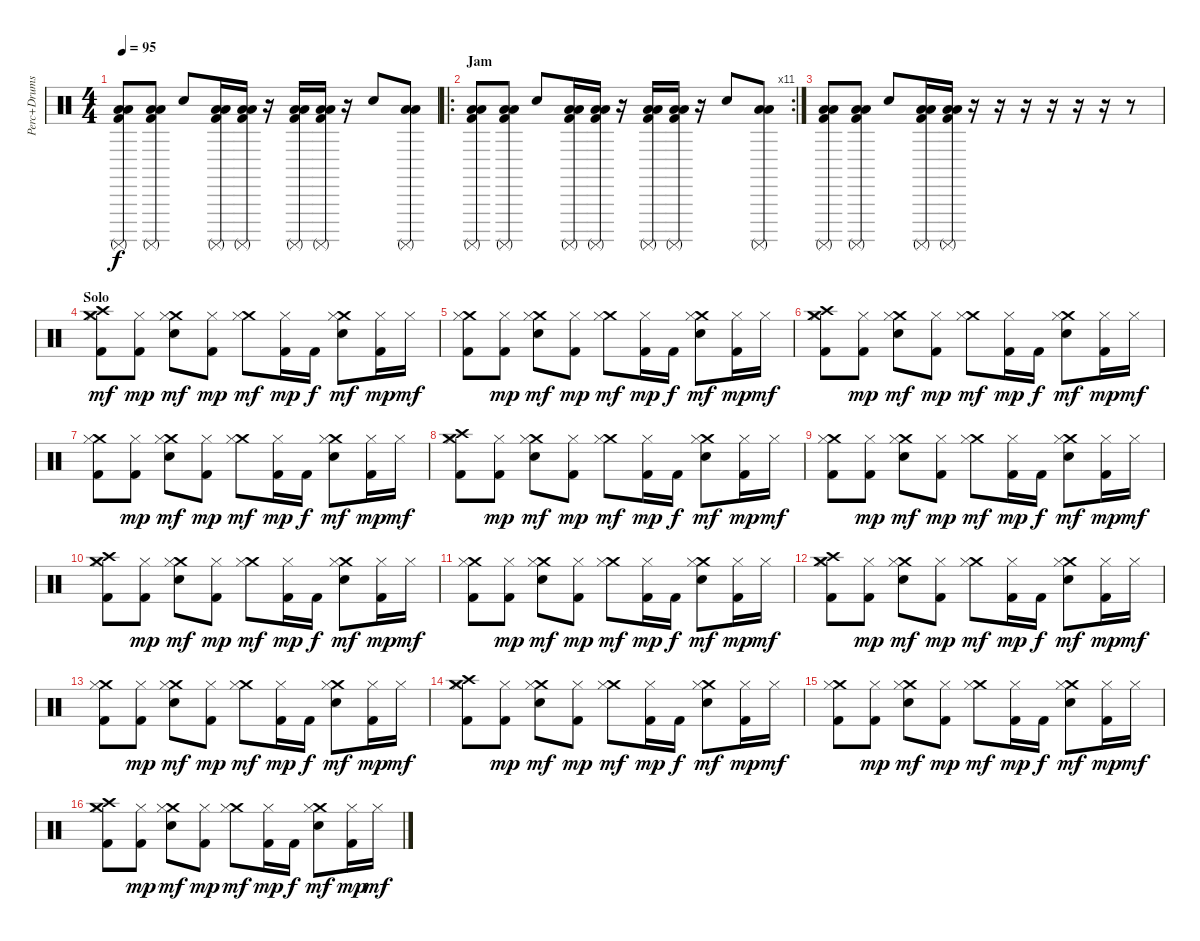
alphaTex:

\track ("Perc+Drums" "Perc+Drums") {instrument percussion}
\staff {score}
\articulation defaults
\ts (4 4)
\tempo 95
\clef neutral
\ks c
("Low Floor Tom (hit)" "Low Tom (hit)" "Surdo (mute)" "Kick (hit) 2").8{dy f} ("Low Floor Tom (hit)" "Low Tom (hit)" "Surdo (mute)" "Kick (hit) 2").8 "Snare (hit) 2".8 ("Low Floor Tom (hit)" "Low Tom (hit)" "Surdo (mute)" "Kick (hit) 2").16 ("Low Floor Tom (hit)" "Low Tom (hit)" "Surdo (mute)" "Kick (hit) 2").16 r.16 ("Low Floor Tom (hit)" "Low Tom (hit)" "Surdo (mute)" "Kick (hit) 2").16 ("Low Floor Tom (hit)" "Low Tom (hit)" "Surdo (mute)" "Kick (hit) 2").16 r.16 "Snare (hit) 2".8 ("Low Floor Tom (hit)" "Low Tom (hit)" "Surdo (mute)").8 |
\ro
\rc 11
\section ("" "Jam")
("Low Floor Tom (hit)" "Low Tom (hit)" "Surdo (mute)" "Kick (hit) 2").8 ("Low Floor Tom (hit)" "Low Tom (hit)" "Surdo (mute)" "Kick (hit) 2").8 "Snare (hit) 2".8 ("Low Floor Tom (hit)" "Low Tom (hit)" "Surdo (mute)" "Kick (hit) 2").16 ("Low Floor Tom (hit)" "Low Tom (hit)" "Surdo (mute)" "Kick (hit) 2").16 r.16 ("Low Floor Tom (hit)" "Low Tom (hit)" "Surdo (mute)" "Kick (hit) 2").16 ("Low Floor Tom (hit)" "Low Tom (hit)" "Surdo (mute)" "Kick (hit) 2").16 r.16 "Snare (hit) 2".8 ("Low Floor Tom (hit)" "Low Tom (hit)" "Surdo (mute)").8 |
("Low Floor Tom (hit)" "Low Tom (hit)" "Surdo (mute)" "Kick (hit) 2").8 ("Low Floor Tom (hit)" "Low Tom (hit)" "Surdo (mute)" "Kick (hit) 2").8 "Snare (hit) 2".8 ("Low Floor Tom (hit)" "Low Tom (hit)" "Surdo (mute)" "Kick (hit) 2").16 ("Low Floor Tom (hit)" "Low Tom (hit)" "Surdo (mute)" "Kick (hit) 2").16 r.16 r.16 r.16 r.16 r.16 r.16 r.8 |
\section ("" "Solo")
("Crash medium (hit)" "Crash high (hit)" "Hi-Hat (closed)" "Kick (hit) 2").8{dy mf} ("Hi-Hat (closed)" "Kick (hit) 2").8{dy mp} ("Crash medium (hit)" "Snare (hit) 2" "Hi-Hat (closed)").8{dy mf} ("Hi-Hat (closed)" "Kick (hit) 2").8{dy mp} ("Crash medium (hit)" "Hi-Hat (closed)").8{dy mf} ("Hi-Hat (closed)" "Kick (hit) 2").16{dy mp} "Kick (hit) 2".16{dy f} ("Crash medium (hit)" "Snare (hit) 2" "Hi-Hat (closed)").8{dy mf} ("Hi-Hat (closed)" "Kick (hit) 2").16{dy mp} "Hi-Hat (closed)".16{dy mf} |
("Crash medium (hit)" "Hi-Hat (closed)" "Kick (hit) 2").8 ("Hi-Hat (closed)" "Kick (hit) 2").8{dy mp} ("Crash medium (hit)" "Snare (hit) 2" "Hi-Hat (closed)").8{dy mf} ("Hi-Hat (closed)" "Kick (hit) 2").8{dy mp} ("Crash medium (hit)" "Hi-Hat (closed)").8{dy mf} ("Hi-Hat (closed)" "Kick (hit) 2").16{dy mp} "Kick (hit) 2".16{dy f} ("Crash medium (hit)" "Snare (hit) 2" "Hi-Hat (closed)").8{dy mf} ("Hi-Hat (closed)" "Kick (hit) 2").16{dy mp} "Hi-Hat (closed)".16{dy mf} |
("Crash medium (hit)" "Crash high (hit)" "Hi-Hat (closed)" "Kick (hit) 2").8 ("Hi-Hat (closed)" "Kick (hit) 2").8{dy mp} ("Crash medium (hit)" "Snare (hit) 2" "Hi-Hat (closed)").8{dy mf} ("Hi-Hat (closed)" "Kick (hit) 2").8{dy mp} ("Crash medium (hit)" "Hi-Hat (closed)").8{dy mf} ("Hi-Hat (closed)" "Kick (hit) 2").16{dy mp} "Kick (hit) 2".16{dy f} ("Crash medium (hit)" "Snare (hit) 2" "Hi-Hat (closed)").8{dy mf} ("Hi-Hat (closed)" "Kick (hit) 2").16{dy mp} "Hi-Hat (closed)".16{dy mf} |
("Crash medium (hit)" "Hi-Hat (closed)" "Kick (hit) 2").8 ("Hi-Hat (closed)" "Kick (hit) 2").8{dy mp} ("Crash medium (hit)" "Snare (hit) 2" "Hi-Hat (closed)").8{dy mf} ("Hi-Hat (closed)" "Kick (hit) 2").8{dy mp} ("Crash medium (hit)" "Hi-Hat (closed)").8{dy mf} ("Hi-Hat (closed)" "Kick (hit) 2").16{dy mp} "Kick (hit) 2".16{dy f} ("Crash medium (hit)" "Snare (hit) 2" "Hi-Hat (closed)").8{dy mf} ("Hi-Hat (closed)" "Kick (hit) 2").16{dy mp} "Hi-Hat (closed)".16{dy mf} |
("Crash medium (hit)" "Crash high (hit)" "Hi-Hat (closed)" "Kick (hit) 2").8 ("Hi-Hat (closed)" "Kick (hit) 2").8{dy mp} ("Crash medium (hit)" "Snare (hit) 2" "Hi-Hat (closed)").8{dy mf} ("Hi-Hat (closed)" "Kick (hit) 2").8{dy mp} ("Crash medium (hit)" "Hi-Hat (closed)").8{dy mf} ("Hi-Hat (closed)" "Kick (hit) 2").16{dy mp} "Kick (hit) 2".16{dy f} ("Crash medium (hit)" "Snare (hit) 2" "Hi-Hat (closed)").8{dy mf} ("Hi-Hat (closed)" "Kick (hit) 2").16{dy mp} "Hi-Hat (closed)".16{dy mf} |
("Crash medium (hit)" "Hi-Hat (closed)" "Kick (hit) 2").8 ("Hi-Hat (closed)" "Kick (hit) 2").8{dy mp} ("Crash medium (hit)" "Snare (hit) 2" "Hi-Hat (closed)").8{dy mf} ("Hi-Hat (closed)" "Kick (hit) 2").8{dy mp} ("Crash medium (hit)" "Hi-Hat (closed)").8{dy mf} ("Hi-Hat (closed)" "Kick (hit) 2").16{dy mp} "Kick (hit) 2".16{dy f} ("Crash medium (hit)" "Snare (hit) 2" "Hi-Hat (closed)").8{dy mf} ("Hi-Hat (closed)" "Kick (hit) 2").16{dy mp} "Hi-Hat (closed)".16{dy mf} |
("Crash medium (hit)" "Crash high (hit)" "Hi-Hat (closed)" "Kick (hit) 2").8 ("Hi-Hat (closed)" "Kick (hit) 2").8{dy mp} ("Crash medium (hit)" "Snare (hit) 2" "Hi-Hat (closed)").8{dy mf} ("Hi-Hat (closed)" "Kick (hit) 2").8{dy mp} ("Crash medium (hit)" "Hi-Hat (closed)").8{dy mf} ("Hi-Hat (closed)" "Kick (hit) 2").16{dy mp} "Kick (hit) 2".16{dy f} ("Crash medium (hit)" "Snare (hit) 2" "Hi-Hat (closed)").8{dy mf} ("Hi-Hat (closed)" "Kick (hit) 2").16{dy mp} "Hi-Hat (closed)".16{dy mf} |
("Crash medium (hit)" "Hi-Hat (closed)" "Kick (hit) 2").8 ("Hi-Hat (closed)" "Kick (hit) 2").8{dy mp} ("Crash medium (hit)" "Snare (hit) 2" "Hi-Hat (closed)").8{dy mf} ("Hi-Hat (closed)" "Kick (hit) 2").8{dy mp} ("Crash medium (hit)" "Hi-Hat (closed)").8{dy mf} ("Hi-Hat (closed)" "Kick (hit) 2").16{dy mp} "Kick (hit) 2".16{dy f} ("Crash medium (hit)" "Snare (hit) 2" "Hi-Hat (closed)").8{dy mf} ("Hi-Hat (closed)" "Kick (hit) 2").16{dy mp} "Hi-Hat (closed)".16{dy mf} |
("Crash medium (hit)" "Crash high (hit)" "Hi-Hat (closed)" "Kick (hit) 2").8 ("Hi-Hat (closed)" "Kick (hit) 2").8{dy mp} ("Crash medium (hit)" "Snare (hit) 2" "Hi-Hat (closed)").8{dy mf} ("Hi-Hat (closed)" "Kick (hit) 2").8{dy mp} ("Crash medium (hit)" "Hi-Hat (closed)").8{dy mf} ("Hi-Hat (closed)" "Kick (hit) 2").16{dy mp} "Kick (hit) 2".16{dy f} ("Crash medium (hit)" "Snare (hit) 2" "Hi-Hat (closed)").8{dy mf} ("Hi-Hat (closed)" "Kick (hit) 2").16{dy mp} "Hi-Hat (closed)".16{dy mf} |
("Crash medium (hit)" "Hi-Hat (closed)" "Kick (hit) 2").8 ("Hi-Hat (closed)" "Kick (hit) 2").8{dy mp} ("Crash medium (hit)" "Snare (hit) 2" "Hi-Hat (closed)").8{dy mf} ("Hi-Hat (closed)" "Kick (hit) 2").8{dy mp} ("Crash medium (hit)" "Hi-Hat (closed)").8{dy mf} ("Hi-Hat (closed)" "Kick (hit) 2").16{dy mp} "Kick (hit) 2".16{dy f} ("Crash medium (hit)" "Snare (hit) 2" "Hi-Hat (closed)").8{dy mf} ("Hi-Hat (closed)" "Kick (hit) 2").16{dy mp} "Hi-Hat (closed)".16{dy mf} |
("Crash medium (hit)" "Crash high (hit)" "Hi-Hat (closed)" "Kick (hit) 2").8 ("Hi-Hat (closed)" "Kick (hit) 2").8{dy mp} ("Crash medium (hit)" "Snare (hit) 2" "Hi-Hat (closed)").8{dy mf} ("Hi-Hat (closed)" "Kick (hit) 2").8{dy mp} ("Crash medium (hit)" "Hi-Hat (closed)").8{dy mf} ("Hi-Hat (closed)" "Kick (hit) 2").16{dy mp} "Kick (hit) 2".16{dy f} ("Crash medium (hit)" "Snare (hit) 2" "Hi-Hat (closed)").8{dy mf} ("Hi-Hat (closed)" "Kick (hit) 2").16{dy mp} "Hi-Hat (closed)".16{dy mf} |
("Crash medium (hit)" "Hi-Hat (closed)" "Kick (hit) 2").8 ("Hi-Hat (closed)" "Kick (hit) 2").8{dy mp} ("Crash medium (hit)" "Snare (hit) 2" "Hi-Hat (closed)").8{dy mf} ("Hi-Hat (closed)" "Kick (hit) 2").8{dy mp} ("Crash medium (hit)" "Hi-Hat (closed)").8{dy mf} ("Hi-Hat (closed)" "Kick (hit) 2").16{dy mp} "Kick (hit) 2".16{dy f} ("Crash medium (hit)" "Snare (hit) 2" "Hi-Hat (closed)").8{dy mf} ("Hi-Hat (closed)" "Kick (hit) 2").16{dy mp} "Hi-Hat (closed)".16{dy mf} |
("Crash medium (hit)" "Crash high (hit)" "Hi-Hat (closed)" "Kick (hit) 2").8 ("Hi-Hat (closed)" "Kick (hit) 2").8{dy mp} ("Crash medium (hit)" "Snare (hit) 2" "Hi-Hat (closed)").8{dy mf} ("Hi-Hat (closed)" "Kick (hit) 2").8{dy mp} ("Crash medium (hit)" "Hi-Hat (closed)").8{dy mf} ("Hi-Hat (closed)" "Kick (hit) 2").16{dy mp} "Kick (hit) 2".16{dy f} ("Crash medium (hit)" "Snare (hit) 2" "Hi-Hat (closed)").8{dy mf} ("Hi-Hat (closed)" "Kick (hit) 2").16{dy mp} "Hi-Hat (closed)".16{dy mf}
